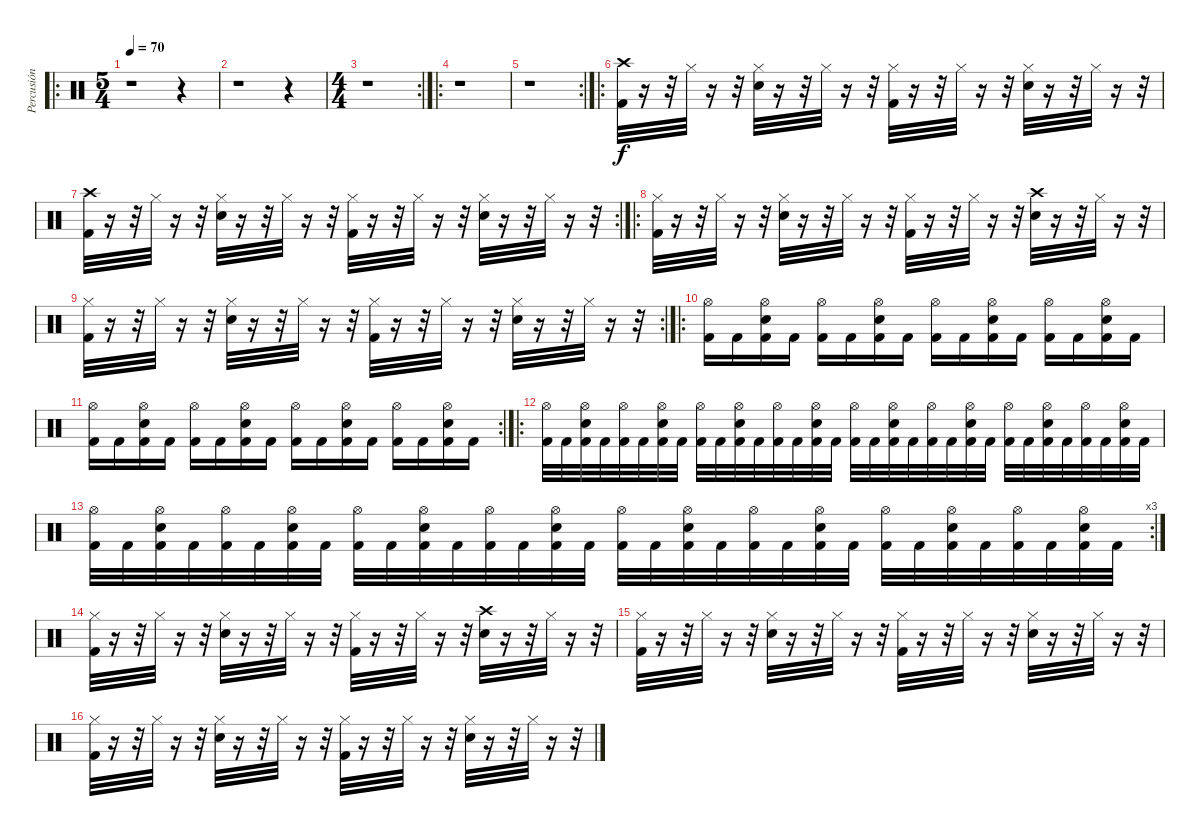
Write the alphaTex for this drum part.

\track ("Percusión" "Percusión") {instrument percussion}
\staff {score}
\articulation defaults
\ro
\ts (5 4)
\tempo 70
\clef neutral
\ks c
r.1{dy f} r.4 |
r.1 r.4 |
\rc 2
\ts (4 4)
r.1 |
\ro
r.1 |
\rc 2
r.1 |
\ro
("Kick (hit) 2" "Crash high (hit)").32 r.16 r.32 "Hi-Hat (closed)".32 r.16 r.32 ("Snare (hit) 2" "Hi-Hat (closed)").32 r.16 r.32 "Hi-Hat (closed)".32 r.16 r.32 ("Hi-Hat (closed)" "Kick (hit) 2").32 r.16 r.32 "Hi-Hat (closed)".32 r.16 r.32 ("Snare (hit) 2" "Hi-Hat (closed)").32 r.16 r.32 "Hi-Hat (closed)".32 r.16 r.32 |
\rc 2
("Kick (hit) 2" "Crash high (hit)").32 r.16 r.32 "Hi-Hat (closed)".32 r.16 r.32 ("Snare (hit) 2" "Hi-Hat (closed)").32 r.16 r.32 "Hi-Hat (closed)".32 r.16 r.32 ("Hi-Hat (closed)" "Kick (hit) 2").32 r.16 r.32 "Hi-Hat (closed)".32 r.16 r.32 ("Snare (hit) 2" "Hi-Hat (closed)").32 r.16 r.32 "Hi-Hat (closed)".32 r.16 r.32 |
\ro
("Kick (hit) 2" "Hi-Hat (closed)").32 r.16 r.32 "Hi-Hat (closed)".32 r.16 r.32 ("Snare (hit) 2" "Hi-Hat (closed)").32 r.16 r.32 "Hi-Hat (closed)".32 r.16 r.32 ("Hi-Hat (closed)" "Kick (hit) 2").32 r.16 r.32 "Hi-Hat (closed)".32 r.16 r.32 ("Crash high (hit)" "Snare (hit) 2").32 r.16 r.32 "Hi-Hat (closed)".32 r.16 r.32 |
\rc 2
("Hi-Hat (closed)" "Kick (hit) 2").32 r.16 r.32 "Hi-Hat (closed)".32 r.16 r.32 ("Snare (hit) 2" "Hi-Hat (closed)").32 r.16 r.32 "Hi-Hat (closed)".32 r.16 r.32 ("Hi-Hat (closed)" "Kick (hit) 2").32 r.16 r.32 "Hi-Hat (closed)".32 r.16 r.32 ("Snare (hit) 2" "Hi-Hat (closed)").32 r.16 r.32 "Hi-Hat (closed)".32 r.16 r.32 |
\ro
("Hi-Hat (open)" "Kick (hit) 2").16 "Kick (hit) 2".16 ("Kick (hit) 2" "Snare (hit) 2" "Hi-Hat (open)").16 "Kick (hit) 2".16 ("Kick (hit) 2" "Hi-Hat (open)").16 "Kick (hit) 2".16 ("Kick (hit) 2" "Snare (hit) 2" "Hi-Hat (open)").16 "Kick (hit) 2".16 ("Kick (hit) 2" "Hi-Hat (open)").16 "Kick (hit) 2".16 ("Kick (hit) 2" "Snare (hit) 2" "Hi-Hat (open)").16 "Kick (hit) 2".16 ("Kick (hit) 2" "Hi-Hat (open)").16 "Kick (hit) 2".16 ("Kick (hit) 2" "Snare (hit) 2" "Hi-Hat (open)").16 "Kick (hit) 2".16 |
\rc 2
("Hi-Hat (open)" "Kick (hit) 2").16 "Kick (hit) 2".16 ("Kick (hit) 2" "Snare (hit) 2" "Hi-Hat (open)").16 "Kick (hit) 2".16 ("Kick (hit) 2" "Hi-Hat (open)").16 "Kick (hit) 2".16 ("Kick (hit) 2" "Snare (hit) 2" "Hi-Hat (open)").16 "Kick (hit) 2".16 ("Kick (hit) 2" "Hi-Hat (open)").16 "Kick (hit) 2".16 ("Kick (hit) 2" "Snare (hit) 2" "Hi-Hat (open)").16 "Kick (hit) 2".16 ("Kick (hit) 2" "Hi-Hat (open)").16 "Kick (hit) 2".16 ("Kick (hit) 2" "Snare (hit) 2" "Hi-Hat (open)").16 "Kick (hit) 2".16 |
\ro
("Hi-Hat (open)" "Kick (hit) 2").32 "Kick (hit) 2".32 ("Kick (hit) 2" "Snare (hit) 2" "Hi-Hat (open)").32 "Kick (hit) 2".32 ("Kick (hit) 2" "Hi-Hat (open)").32 "Kick (hit) 2".32 ("Kick (hit) 2" "Snare (hit) 2" "Hi-Hat (open)").32 "Kick (hit) 2".32 ("Kick (hit) 2" "Hi-Hat (open)").32 "Kick (hit) 2".32 ("Kick (hit) 2" "Snare (hit) 2" "Hi-Hat (open)").32 "Kick (hit) 2".32 ("Kick (hit) 2" "Hi-Hat (open)").32 "Kick (hit) 2".32 ("Kick (hit) 2" "Snare (hit) 2" "Hi-Hat (open)").32 "Kick (hit) 2".32 ("Hi-Hat (open)" "Kick (hit) 2").32 "Kick (hit) 2".32 ("Kick (hit) 2" "Snare (hit) 2" "Hi-Hat (open)").32 "Kick (hit) 2".32 ("Kick (hit) 2" "Hi-Hat (open)").32 "Kick (hit) 2".32 ("Kick (hit) 2" "Snare (hit) 2" "Hi-Hat (open)").32 "Kick (hit) 2".32 ("Kick (hit) 2" "Hi-Hat (open)").32 "Kick (hit) 2".32 ("Kick (hit) 2" "Snare (hit) 2" "Hi-Hat (open)").32 "Kick (hit) 2".32 ("Kick (hit) 2" "Hi-Hat (open)").32 "Kick (hit) 2".32 ("Kick (hit) 2" "Snare (hit) 2" "Hi-Hat (open)").32 "Kick (hit) 2".32 |
\rc 3
("Hi-Hat (open)" "Kick (hit) 2").32 "Kick (hit) 2".32 ("Kick (hit) 2" "Snare (hit) 2" "Hi-Hat (open)").32 "Kick (hit) 2".32 ("Kick (hit) 2" "Hi-Hat (open)").32 "Kick (hit) 2".32 ("Kick (hit) 2" "Snare (hit) 2" "Hi-Hat (open)").32 "Kick (hit) 2".32 ("Kick (hit) 2" "Hi-Hat (open)").32 "Kick (hit) 2".32 ("Kick (hit) 2" "Snare (hit) 2" "Hi-Hat (open)").32 "Kick (hit) 2".32 ("Kick (hit) 2" "Hi-Hat (open)").32 "Kick (hit) 2".32 ("Kick (hit) 2" "Snare (hit) 2" "Hi-Hat (open)").32 "Kick (hit) 2".32 ("Hi-Hat (open)" "Kick (hit) 2").32 "Kick (hit) 2".32 ("Kick (hit) 2" "Snare (hit) 2" "Hi-Hat (open)").32 "Kick (hit) 2".32 ("Kick (hit) 2" "Hi-Hat (open)").32 "Kick (hit) 2".32 ("Kick (hit) 2" "Snare (hit) 2" "Hi-Hat (open)").32 "Kick (hit) 2".32 ("Kick (hit) 2" "Hi-Hat (open)").32 "Kick (hit) 2".32 ("Kick (hit) 2" "Snare (hit) 2" "Hi-Hat (open)").32 "Kick (hit) 2".32 ("Kick (hit) 2" "Hi-Hat (open)").32 "Kick (hit) 2".32 ("Kick (hit) 2" "Snare (hit) 2" "Hi-Hat (open)").32 "Kick (hit) 2".32 |
("Kick (hit) 2" "Hi-Hat (closed)").32 r.16 r.32 "Hi-Hat (closed)".32 r.16 r.32 ("Snare (hit) 2" "Hi-Hat (closed)").32 r.16 r.32 "Hi-Hat (closed)".32 r.16 r.32 ("Hi-Hat (closed)" "Kick (hit) 2").32 r.16 r.32 "Hi-Hat (closed)".32 r.16 r.32 ("Crash high (hit)" "Snare (hit) 2").32 r.16 r.32 "Hi-Hat (closed)".32 r.16 r.32 |
("Hi-Hat (closed)" "Kick (hit) 2").32 r.16 r.32 "Hi-Hat (closed)".32 r.16 r.32 ("Snare (hit) 2" "Hi-Hat (closed)").32 r.16 r.32 "Hi-Hat (closed)".32 r.16 r.32 ("Hi-Hat (closed)" "Kick (hit) 2").32 r.16 r.32 "Hi-Hat (closed)".32 r.16 r.32 ("Snare (hit) 2" "Hi-Hat (closed)").32 r.16 r.32 "Hi-Hat (closed)".32 r.16 r.32 |
("Hi-Hat (closed)" "Kick (hit) 2").32 r.16 r.32 "Hi-Hat (closed)".32 r.16 r.32 ("Snare (hit) 2" "Hi-Hat (closed)").32 r.16 r.32 "Hi-Hat (closed)".32 r.16 r.32 ("Hi-Hat (closed)" "Kick (hit) 2").32 r.16 r.32 "Hi-Hat (closed)".32 r.16 r.32 ("Snare (hit) 2" "Hi-Hat (closed)").32 r.16 r.32 "Hi-Hat (closed)".32 r.16 r.32
